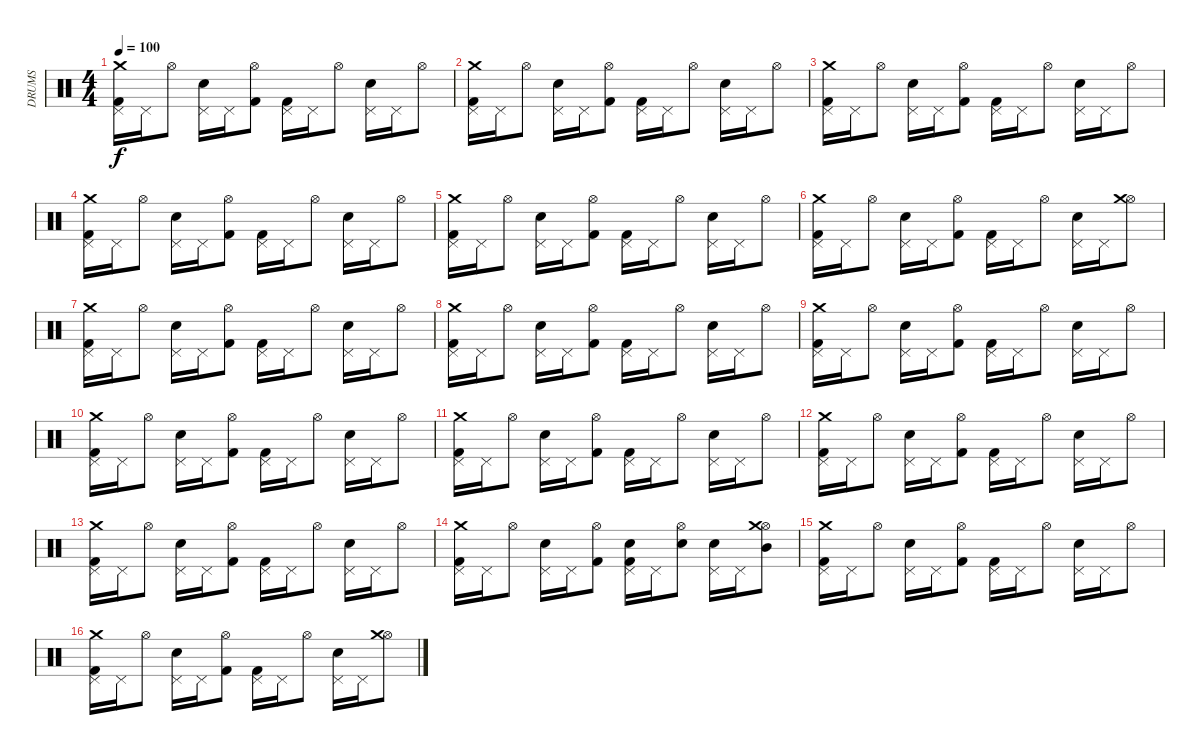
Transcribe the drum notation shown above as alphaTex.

\track ("DRUMS" "DRUMS") {instrument percussion}
\staff {score}
\articulation defaults
\ts (4 4)
\tempo 100
\clef neutral
\ks c
("Kick (hit) 2" "Pedal Hi-Hat (hit)" "Crash medium (hit)").16{dy f} "Pedal Hi-Hat (hit)".16 "Hi-Hat (open)".8 ("Electric Snare (hit)" "Pedal Hi-Hat (hit)").16 "Pedal Hi-Hat (hit)".16 ("Kick (hit) 2" "Hi-Hat (open)").8 ("Kick (hit) 2" "Pedal Hi-Hat (hit)").16 "Pedal Hi-Hat (hit)".16 "Hi-Hat (open)".8 ("Electric Snare (hit)" "Pedal Hi-Hat (hit)").16 "Pedal Hi-Hat (hit)".16 "Hi-Hat (open)".8 |
("Kick (hit) 2" "Pedal Hi-Hat (hit)" "Crash medium (hit)").16 "Pedal Hi-Hat (hit)".16 "Hi-Hat (open)".8 ("Electric Snare (hit)" "Pedal Hi-Hat (hit)").16 "Pedal Hi-Hat (hit)".16 ("Kick (hit) 2" "Hi-Hat (open)").8 ("Kick (hit) 2" "Pedal Hi-Hat (hit)").16 "Pedal Hi-Hat (hit)".16 "Hi-Hat (open)".8 ("Electric Snare (hit)" "Pedal Hi-Hat (hit)").16 "Pedal Hi-Hat (hit)".16 "Hi-Hat (open)".8 |
("Kick (hit) 2" "Pedal Hi-Hat (hit)" "Crash medium (hit)").16 "Pedal Hi-Hat (hit)".16 "Hi-Hat (open)".8 ("Electric Snare (hit)" "Pedal Hi-Hat (hit)").16 "Pedal Hi-Hat (hit)".16 ("Kick (hit) 2" "Hi-Hat (open)").8 ("Kick (hit) 2" "Pedal Hi-Hat (hit)").16 "Pedal Hi-Hat (hit)".16 "Hi-Hat (open)".8 ("Electric Snare (hit)" "Pedal Hi-Hat (hit)").16 "Pedal Hi-Hat (hit)".16 "Hi-Hat (open)".8 |
("Kick (hit) 2" "Pedal Hi-Hat (hit)" "Crash medium (hit)").16 "Pedal Hi-Hat (hit)".16 "Hi-Hat (open)".8 ("Electric Snare (hit)" "Pedal Hi-Hat (hit)").16 "Pedal Hi-Hat (hit)".16 ("Kick (hit) 2" "Hi-Hat (open)").8 ("Kick (hit) 2" "Pedal Hi-Hat (hit)").16 "Pedal Hi-Hat (hit)".16 "Hi-Hat (open)".8 ("Electric Snare (hit)" "Pedal Hi-Hat (hit)").16 "Pedal Hi-Hat (hit)".16 "Hi-Hat (open)".8 |
("Kick (hit) 2" "Pedal Hi-Hat (hit)" "Crash medium (hit)").16 "Pedal Hi-Hat (hit)".16 "Hi-Hat (open)".8 ("Electric Snare (hit)" "Pedal Hi-Hat (hit)").16 "Pedal Hi-Hat (hit)".16 ("Kick (hit) 2" "Hi-Hat (open)").8 ("Kick (hit) 2" "Pedal Hi-Hat (hit)").16 "Pedal Hi-Hat (hit)".16 "Hi-Hat (open)".8 ("Electric Snare (hit)" "Pedal Hi-Hat (hit)").16 "Pedal Hi-Hat (hit)".16 "Hi-Hat (open)".8 |
("Kick (hit) 2" "Pedal Hi-Hat (hit)" "Crash medium (hit)").16 "Pedal Hi-Hat (hit)".16 "Hi-Hat (open)".8 ("Electric Snare (hit)" "Pedal Hi-Hat (hit)").16 "Pedal Hi-Hat (hit)".16 ("Kick (hit) 2" "Hi-Hat (open)").8 ("Kick (hit) 2" "Pedal Hi-Hat (hit)").16 "Pedal Hi-Hat (hit)".16 "Hi-Hat (open)".8 ("Electric Snare (hit)" "Pedal Hi-Hat (hit)").16 "Pedal Hi-Hat (hit)".16 ("Hi-Hat (open)" "Crash medium (hit)").8 |
("Kick (hit) 2" "Pedal Hi-Hat (hit)" "Crash medium (hit)").16 "Pedal Hi-Hat (hit)".16 "Hi-Hat (open)".8 ("Electric Snare (hit)" "Pedal Hi-Hat (hit)").16 "Pedal Hi-Hat (hit)".16 ("Kick (hit) 2" "Hi-Hat (open)").8 ("Kick (hit) 2" "Pedal Hi-Hat (hit)").16 "Pedal Hi-Hat (hit)".16 "Hi-Hat (open)".8 ("Electric Snare (hit)" "Pedal Hi-Hat (hit)").16 "Pedal Hi-Hat (hit)".16 "Hi-Hat (open)".8 |
("Kick (hit) 2" "Pedal Hi-Hat (hit)" "Crash medium (hit)").16 "Pedal Hi-Hat (hit)".16 "Hi-Hat (open)".8 ("Electric Snare (hit)" "Pedal Hi-Hat (hit)").16 "Pedal Hi-Hat (hit)".16 ("Kick (hit) 2" "Hi-Hat (open)").8 ("Kick (hit) 2" "Pedal Hi-Hat (hit)").16 "Pedal Hi-Hat (hit)".16 "Hi-Hat (open)".8 ("Electric Snare (hit)" "Pedal Hi-Hat (hit)").16 "Pedal Hi-Hat (hit)".16 "Hi-Hat (open)".8 |
("Kick (hit) 2" "Pedal Hi-Hat (hit)" "Crash medium (hit)").16 "Pedal Hi-Hat (hit)".16 "Hi-Hat (open)".8 ("Electric Snare (hit)" "Pedal Hi-Hat (hit)").16 "Pedal Hi-Hat (hit)".16 ("Kick (hit) 2" "Hi-Hat (open)").8 ("Kick (hit) 2" "Pedal Hi-Hat (hit)").16 "Pedal Hi-Hat (hit)".16 "Hi-Hat (open)".8 ("Electric Snare (hit)" "Pedal Hi-Hat (hit)").16 "Pedal Hi-Hat (hit)".16 "Hi-Hat (open)".8 |
("Kick (hit) 2" "Pedal Hi-Hat (hit)" "Crash medium (hit)").16 "Pedal Hi-Hat (hit)".16 "Hi-Hat (open)".8 ("Electric Snare (hit)" "Pedal Hi-Hat (hit)").16 "Pedal Hi-Hat (hit)".16 ("Kick (hit) 2" "Hi-Hat (open)").8 ("Kick (hit) 2" "Pedal Hi-Hat (hit)").16 "Pedal Hi-Hat (hit)".16 "Hi-Hat (open)".8 ("Electric Snare (hit)" "Pedal Hi-Hat (hit)").16 "Pedal Hi-Hat (hit)".16 "Hi-Hat (open)".8 |
("Kick (hit) 2" "Pedal Hi-Hat (hit)" "Crash medium (hit)").16 "Pedal Hi-Hat (hit)".16 "Hi-Hat (open)".8 ("Electric Snare (hit)" "Pedal Hi-Hat (hit)").16 "Pedal Hi-Hat (hit)".16 ("Kick (hit) 2" "Hi-Hat (open)").8 ("Kick (hit) 2" "Pedal Hi-Hat (hit)").16 "Pedal Hi-Hat (hit)".16 "Hi-Hat (open)".8 ("Electric Snare (hit)" "Pedal Hi-Hat (hit)").16 "Pedal Hi-Hat (hit)".16 "Hi-Hat (open)".8 |
("Kick (hit) 2" "Pedal Hi-Hat (hit)" "Crash medium (hit)").16 "Pedal Hi-Hat (hit)".16 "Hi-Hat (open)".8 ("Electric Snare (hit)" "Pedal Hi-Hat (hit)").16 "Pedal Hi-Hat (hit)".16 ("Kick (hit) 2" "Hi-Hat (open)").8 ("Kick (hit) 2" "Pedal Hi-Hat (hit)").16 "Pedal Hi-Hat (hit)".16 "Hi-Hat (open)".8 ("Electric Snare (hit)" "Pedal Hi-Hat (hit)").16 "Pedal Hi-Hat (hit)".16 "Hi-Hat (open)".8 |
("Kick (hit) 2" "Pedal Hi-Hat (hit)" "Crash medium (hit)").16 "Pedal Hi-Hat (hit)".16 "Hi-Hat (open)".8 ("Electric Snare (hit)" "Pedal Hi-Hat (hit)").16 "Pedal Hi-Hat (hit)".16 ("Kick (hit) 2" "Hi-Hat (open)").8 ("Kick (hit) 2" "Pedal Hi-Hat (hit)").16 "Pedal Hi-Hat (hit)".16 "Hi-Hat (open)".8 ("Electric Snare (hit)" "Pedal Hi-Hat (hit)").16 "Pedal Hi-Hat (hit)".16 "Hi-Hat (open)".8 |
("Kick (hit) 2" "Pedal Hi-Hat (hit)" "Crash medium (hit)").16 "Pedal Hi-Hat (hit)".16 "Hi-Hat (open)".8 ("Electric Snare (hit)" "Pedal Hi-Hat (hit)").16 "Pedal Hi-Hat (hit)".16 ("Kick (hit) 2" "Hi-Hat (open)").8 ("Kick (hit) 2" "Electric Snare (hit)" "Pedal Hi-Hat (hit)").16 "Pedal Hi-Hat (hit)".16 ("Electric Snare (hit)" "Hi-Hat (open)").8 ("Electric Snare (hit)" "Pedal Hi-Hat (hit)").16 "Pedal Hi-Hat (hit)".16 ("Mid Tom (hit)" "Hi-Hat (open)" "Crash medium (hit)").8 |
("Kick (hit) 2" "Pedal Hi-Hat (hit)" "Crash medium (hit)").16 "Pedal Hi-Hat (hit)".16 "Hi-Hat (open)".8 ("Electric Snare (hit)" "Pedal Hi-Hat (hit)").16 "Pedal Hi-Hat (hit)".16 ("Kick (hit) 2" "Hi-Hat (open)").8 ("Kick (hit) 2" "Pedal Hi-Hat (hit)").16 "Pedal Hi-Hat (hit)".16 "Hi-Hat (open)".8 ("Electric Snare (hit)" "Pedal Hi-Hat (hit)").16 "Pedal Hi-Hat (hit)".16 "Hi-Hat (open)".8 |
("Kick (hit) 2" "Pedal Hi-Hat (hit)" "Crash medium (hit)").16 "Pedal Hi-Hat (hit)".16 "Hi-Hat (open)".8 ("Electric Snare (hit)" "Pedal Hi-Hat (hit)").16 "Pedal Hi-Hat (hit)".16 ("Kick (hit) 2" "Hi-Hat (open)").8 ("Kick (hit) 2" "Pedal Hi-Hat (hit)").16 "Pedal Hi-Hat (hit)".16 "Hi-Hat (open)".8 ("Electric Snare (hit)" "Pedal Hi-Hat (hit)").16 "Pedal Hi-Hat (hit)".16 ("Hi-Hat (open)" "Crash medium (hit)").8
